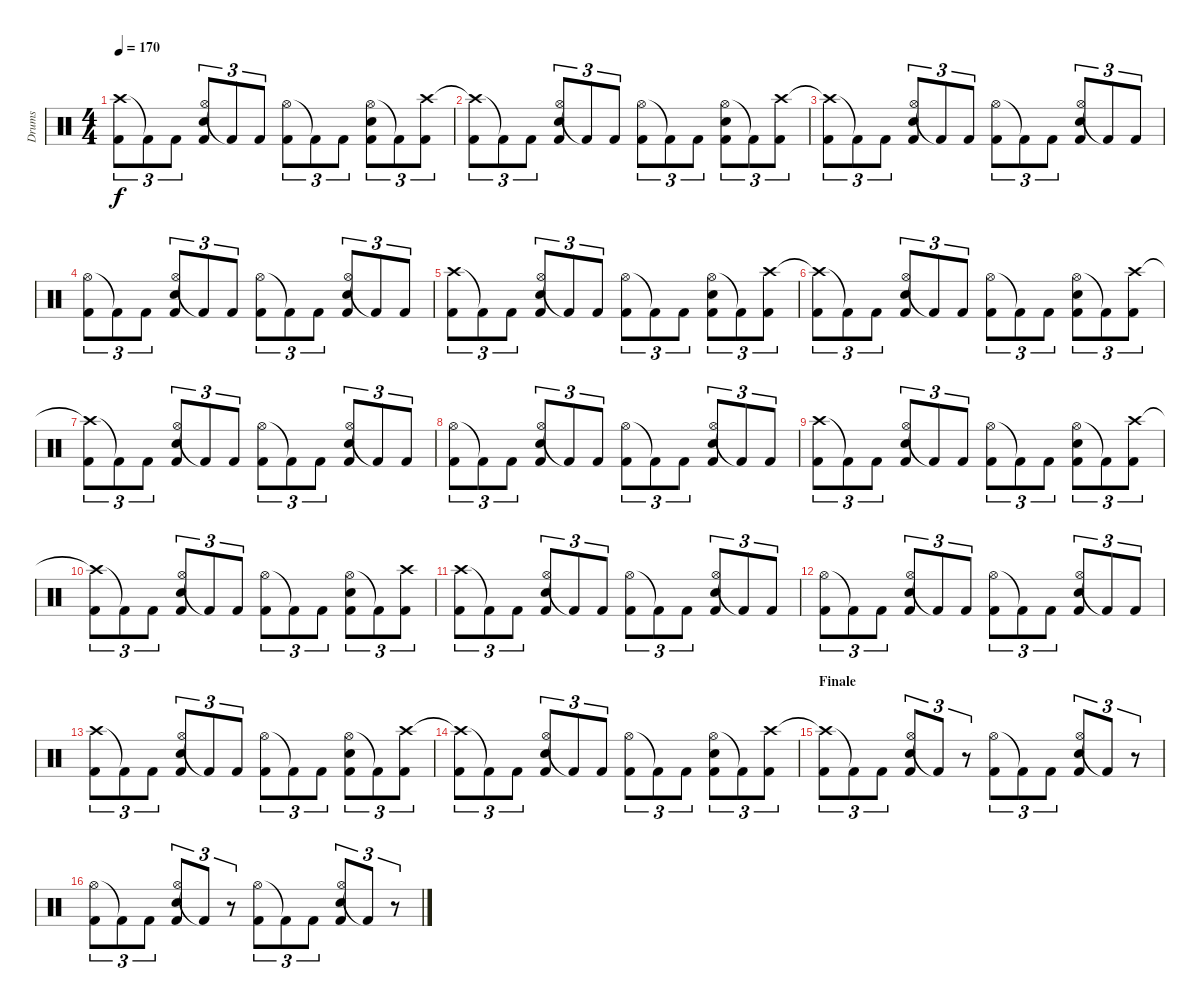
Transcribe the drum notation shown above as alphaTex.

\track ("Drums" "Drums") {instrument percussion}
\staff {score}
\articulation defaults
\ts (4 4)
\tempo 170
\clef neutral
\ks c
("Crash high (hit)" "Kick (hit) 2").8{tu (3 2) dy f} "Kick (hit) 2"{t}.8{tu (3 2)} "Kick (hit) 2".8{tu (3 2)} ("Hi-Hat (open)" "Snare (hit) 2" "Kick (hit) 2").8{tu (3 2)} "Kick (hit) 2"{t}.8{tu (3 2)} "Kick (hit) 2".8{tu (3 2)} ("Hi-Hat (open)" "Kick (hit) 2").8{tu (3 2)} "Kick (hit) 2"{t}.8{tu (3 2)} "Kick (hit) 2".8{tu (3 2)} ("Hi-Hat (open)" "Snare (hit) 2" "Kick (hit) 2").8{tu (3 2)} "Kick (hit) 2"{t}.8{tu (3 2)} ("Crash high (hit)" "Kick (hit) 2").8{tu (3 2)} |
("Crash high (hit)"{t} "Kick (hit) 2").8{tu (3 2)} "Kick (hit) 2"{t}.8{tu (3 2)} "Kick (hit) 2".8{tu (3 2)} ("Hi-Hat (open)" "Snare (hit) 2" "Kick (hit) 2").8{tu (3 2)} "Kick (hit) 2"{t}.8{tu (3 2)} "Kick (hit) 2".8{tu (3 2)} ("Hi-Hat (open)" "Kick (hit) 2").8{tu (3 2)} "Kick (hit) 2"{t}.8{tu (3 2)} "Kick (hit) 2".8{tu (3 2)} ("Hi-Hat (open)" "Snare (hit) 2" "Kick (hit) 2").8{tu (3 2)} "Kick (hit) 2"{t}.8{tu (3 2)} ("Crash high (hit)" "Kick (hit) 2").8{tu (3 2)} |
("Crash high (hit)"{t} "Kick (hit) 2").8{tu (3 2)} "Kick (hit) 2"{t}.8{tu (3 2)} "Kick (hit) 2".8{tu (3 2)} ("Hi-Hat (open)" "Snare (hit) 2" "Kick (hit) 2").8{tu (3 2)} "Kick (hit) 2"{t}.8{tu (3 2)} "Kick (hit) 2".8{tu (3 2)} ("Hi-Hat (open)" "Kick (hit) 2").8{tu (3 2)} "Kick (hit) 2"{t}.8{tu (3 2)} "Kick (hit) 2".8{tu (3 2)} ("Hi-Hat (open)" "Snare (hit) 2" "Kick (hit) 2").8{tu (3 2)} "Kick (hit) 2"{t}.8{tu (3 2)} "Kick (hit) 2".8{tu (3 2)} |
("Hi-Hat (open)" "Kick (hit) 2").8{tu (3 2)} "Kick (hit) 2"{t}.8{tu (3 2)} "Kick (hit) 2".8{tu (3 2)} ("Hi-Hat (open)" "Snare (hit) 2" "Kick (hit) 2").8{tu (3 2)} "Kick (hit) 2"{t}.8{tu (3 2)} "Kick (hit) 2".8{tu (3 2)} ("Hi-Hat (open)" "Kick (hit) 2").8{tu (3 2)} "Kick (hit) 2"{t}.8{tu (3 2)} "Kick (hit) 2".8{tu (3 2)} ("Hi-Hat (open)" "Snare (hit) 2" "Kick (hit) 2").8{tu (3 2)} "Kick (hit) 2"{t}.8{tu (3 2)} "Kick (hit) 2".8{tu (3 2)} |
("Crash high (hit)" "Kick (hit) 2").8{tu (3 2)} "Kick (hit) 2"{t}.8{tu (3 2)} "Kick (hit) 2".8{tu (3 2)} ("Hi-Hat (open)" "Snare (hit) 2" "Kick (hit) 2").8{tu (3 2)} "Kick (hit) 2"{t}.8{tu (3 2)} "Kick (hit) 2".8{tu (3 2)} ("Hi-Hat (open)" "Kick (hit) 2").8{tu (3 2)} "Kick (hit) 2"{t}.8{tu (3 2)} "Kick (hit) 2".8{tu (3 2)} ("Hi-Hat (open)" "Snare (hit) 2" "Kick (hit) 2").8{tu (3 2)} "Kick (hit) 2"{t}.8{tu (3 2)} ("Crash high (hit)" "Kick (hit) 2").8{tu (3 2)} |
("Crash high (hit)"{t} "Kick (hit) 2").8{tu (3 2)} "Kick (hit) 2"{t}.8{tu (3 2)} "Kick (hit) 2".8{tu (3 2)} ("Hi-Hat (open)" "Snare (hit) 2" "Kick (hit) 2").8{tu (3 2)} "Kick (hit) 2"{t}.8{tu (3 2)} "Kick (hit) 2".8{tu (3 2)} ("Hi-Hat (open)" "Kick (hit) 2").8{tu (3 2)} "Kick (hit) 2"{t}.8{tu (3 2)} "Kick (hit) 2".8{tu (3 2)} ("Hi-Hat (open)" "Snare (hit) 2" "Kick (hit) 2").8{tu (3 2)} "Kick (hit) 2"{t}.8{tu (3 2)} ("Crash high (hit)" "Kick (hit) 2").8{tu (3 2)} |
("Crash high (hit)"{t} "Kick (hit) 2").8{tu (3 2)} "Kick (hit) 2"{t}.8{tu (3 2)} "Kick (hit) 2".8{tu (3 2)} ("Hi-Hat (open)" "Snare (hit) 2" "Kick (hit) 2").8{tu (3 2)} "Kick (hit) 2"{t}.8{tu (3 2)} "Kick (hit) 2".8{tu (3 2)} ("Hi-Hat (open)" "Kick (hit) 2").8{tu (3 2)} "Kick (hit) 2"{t}.8{tu (3 2)} "Kick (hit) 2".8{tu (3 2)} ("Hi-Hat (open)" "Snare (hit) 2" "Kick (hit) 2").8{tu (3 2)} "Kick (hit) 2"{t}.8{tu (3 2)} "Kick (hit) 2".8{tu (3 2)} |
("Hi-Hat (open)" "Kick (hit) 2").8{tu (3 2)} "Kick (hit) 2"{t}.8{tu (3 2)} "Kick (hit) 2".8{tu (3 2)} ("Hi-Hat (open)" "Snare (hit) 2" "Kick (hit) 2").8{tu (3 2)} "Kick (hit) 2"{t}.8{tu (3 2)} "Kick (hit) 2".8{tu (3 2)} ("Hi-Hat (open)" "Kick (hit) 2").8{tu (3 2)} "Kick (hit) 2"{t}.8{tu (3 2)} "Kick (hit) 2".8{tu (3 2)} ("Hi-Hat (open)" "Snare (hit) 2" "Kick (hit) 2").8{tu (3 2)} "Kick (hit) 2"{t}.8{tu (3 2)} "Kick (hit) 2".8{tu (3 2)} |
("Crash high (hit)" "Kick (hit) 2").8{tu (3 2)} "Kick (hit) 2"{t}.8{tu (3 2)} "Kick (hit) 2".8{tu (3 2)} ("Hi-Hat (open)" "Snare (hit) 2" "Kick (hit) 2").8{tu (3 2)} "Kick (hit) 2"{t}.8{tu (3 2)} "Kick (hit) 2".8{tu (3 2)} ("Hi-Hat (open)" "Kick (hit) 2").8{tu (3 2)} "Kick (hit) 2"{t}.8{tu (3 2)} "Kick (hit) 2".8{tu (3 2)} ("Hi-Hat (open)" "Snare (hit) 2" "Kick (hit) 2").8{tu (3 2)} "Kick (hit) 2"{t}.8{tu (3 2)} ("Crash high (hit)" "Kick (hit) 2").8{tu (3 2)} |
("Crash high (hit)"{t} "Kick (hit) 2").8{tu (3 2)} "Kick (hit) 2"{t}.8{tu (3 2)} "Kick (hit) 2".8{tu (3 2)} ("Hi-Hat (open)" "Snare (hit) 2" "Kick (hit) 2").8{tu (3 2)} "Kick (hit) 2"{t}.8{tu (3 2)} "Kick (hit) 2".8{tu (3 2)} ("Hi-Hat (open)" "Kick (hit) 2").8{tu (3 2)} "Kick (hit) 2"{t}.8{tu (3 2)} "Kick (hit) 2".8{tu (3 2)} ("Hi-Hat (open)" "Snare (hit) 2" "Kick (hit) 2").8{tu (3 2)} "Kick (hit) 2"{t}.8{tu (3 2)} ("Crash high (hit)" "Kick (hit) 2").8{tu (3 2)} |
("Crash high (hit)" "Kick (hit) 2").8{tu (3 2)} "Kick (hit) 2"{t}.8{tu (3 2)} "Kick (hit) 2".8{tu (3 2)} ("Hi-Hat (open)" "Snare (hit) 2" "Kick (hit) 2").8{tu (3 2)} "Kick (hit) 2"{t}.8{tu (3 2)} "Kick (hit) 2".8{tu (3 2)} ("Hi-Hat (open)" "Kick (hit) 2").8{tu (3 2)} "Kick (hit) 2"{t}.8{tu (3 2)} "Kick (hit) 2".8{tu (3 2)} ("Hi-Hat (open)" "Snare (hit) 2" "Kick (hit) 2").8{tu (3 2)} "Kick (hit) 2"{t}.8{tu (3 2)} "Kick (hit) 2".8{tu (3 2)} |
("Hi-Hat (open)" "Kick (hit) 2").8{tu (3 2)} "Kick (hit) 2"{t}.8{tu (3 2)} "Kick (hit) 2".8{tu (3 2)} ("Hi-Hat (open)" "Snare (hit) 2" "Kick (hit) 2").8{tu (3 2)} "Kick (hit) 2"{t}.8{tu (3 2)} "Kick (hit) 2".8{tu (3 2)} ("Hi-Hat (open)" "Kick (hit) 2").8{tu (3 2)} "Kick (hit) 2"{t}.8{tu (3 2)} "Kick (hit) 2".8{tu (3 2)} ("Hi-Hat (open)" "Snare (hit) 2" "Kick (hit) 2").8{tu (3 2)} "Kick (hit) 2"{t}.8{tu (3 2)} "Kick (hit) 2".8{tu (3 2)} |
("Crash high (hit)" "Kick (hit) 2").8{tu (3 2)} "Kick (hit) 2"{t}.8{tu (3 2)} "Kick (hit) 2".8{tu (3 2)} ("Hi-Hat (open)" "Snare (hit) 2" "Kick (hit) 2").8{tu (3 2)} "Kick (hit) 2"{t}.8{tu (3 2)} "Kick (hit) 2".8{tu (3 2)} ("Hi-Hat (open)" "Kick (hit) 2").8{tu (3 2)} "Kick (hit) 2"{t}.8{tu (3 2)} "Kick (hit) 2".8{tu (3 2)} ("Hi-Hat (open)" "Snare (hit) 2" "Kick (hit) 2").8{tu (3 2)} "Kick (hit) 2"{t}.8{tu (3 2)} ("Crash high (hit)" "Kick (hit) 2").8{tu (3 2)} |
("Crash high (hit)"{t} "Kick (hit) 2").8{tu (3 2)} "Kick (hit) 2"{t}.8{tu (3 2)} "Kick (hit) 2".8{tu (3 2)} ("Hi-Hat (open)" "Snare (hit) 2" "Kick (hit) 2").8{tu (3 2)} "Kick (hit) 2"{t}.8{tu (3 2)} "Kick (hit) 2".8{tu (3 2)} ("Hi-Hat (open)" "Kick (hit) 2").8{tu (3 2)} "Kick (hit) 2"{t}.8{tu (3 2)} "Kick (hit) 2".8{tu (3 2)} ("Hi-Hat (open)" "Snare (hit) 2" "Kick (hit) 2").8{tu (3 2)} "Kick (hit) 2"{t}.8{tu (3 2)} ("Crash high (hit)" "Kick (hit) 2").8{tu (3 2)} |
\section ("" "Finale")
("Crash high (hit)"{t} "Kick (hit) 2").8{tu (3 2)} "Kick (hit) 2"{t}.8{tu (3 2)} "Kick (hit) 2".8{tu (3 2)} ("Hi-Hat (open)" "Snare (hit) 2" "Kick (hit) 2").8{tu (3 2)} "Kick (hit) 2"{t}.8{tu (3 2)} r.8{tu (3 2)} ("Hi-Hat (open)" "Kick (hit) 2").8{tu (3 2)} "Kick (hit) 2"{t}.8{tu (3 2)} "Kick (hit) 2".8{tu (3 2)} ("Hi-Hat (open)" "Snare (hit) 2" "Kick (hit) 2").8{tu (3 2)} "Kick (hit) 2"{t}.8{tu (3 2)} r.8{tu (3 2)} |
("Hi-Hat (open)" "Kick (hit) 2").8{tu (3 2)} "Kick (hit) 2"{t}.8{tu (3 2)} "Kick (hit) 2".8{tu (3 2)} ("Hi-Hat (open)" "Snare (hit) 2" "Kick (hit) 2").8{tu (3 2)} "Kick (hit) 2"{t}.8{tu (3 2)} r.8{tu (3 2)} ("Hi-Hat (open)" "Kick (hit) 2").8{tu (3 2)} "Kick (hit) 2"{t}.8{tu (3 2)} "Kick (hit) 2".8{tu (3 2)} ("Hi-Hat (open)" "Snare (hit) 2" "Kick (hit) 2").8{tu (3 2)} "Kick (hit) 2"{t}.8{tu (3 2)} r.8{tu (3 2)}
